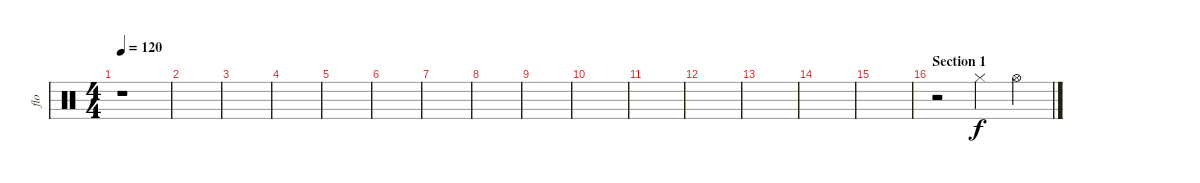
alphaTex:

\track ("flo" "flo") {instrument percussion}
\staff {score}
\articulation defaults
\ts (4 4)
\tempo 120
\clef neutral
\ks c
r.1{dy f} |
|
|
|
|
|
|
|
|
|
|
|
|
|
|
\section ("" "Section 1")
r.2 "Hi-Hat (closed)".4 "Hi-Hat (open)".4
